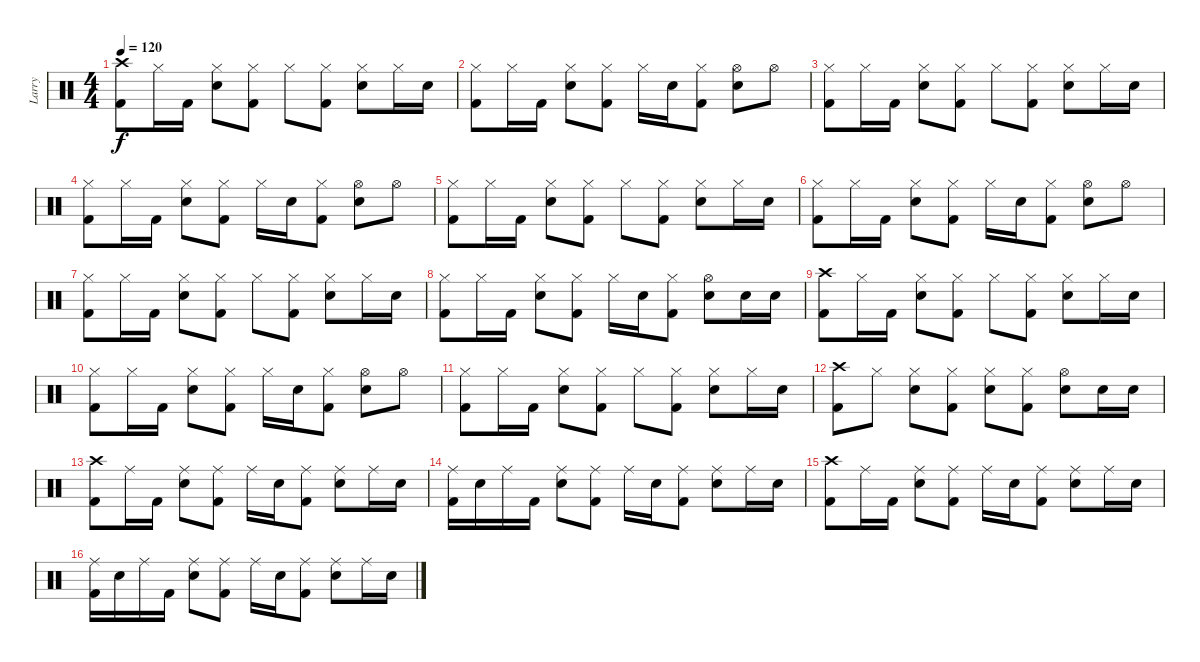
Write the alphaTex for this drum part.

\track ("Larry" "Larry") {instrument percussion}
\staff {score}
\articulation defaults
\ts (4 4)
\tempo 120
\clef neutral
\ks c
("Crash high (hit)" "Kick (hit) 2").8{dy f} "Hi-Hat (closed)".16 "Kick (hit) 2".16 ("Hi-Hat (closed)" "Snare (hit) 2").8 ("Hi-Hat (closed)" "Kick (hit) 2").8 "Hi-Hat (closed)".8 ("Hi-Hat (closed)" "Kick (hit) 2").8 ("Hi-Hat (closed)" "Snare (hit) 2").8 "Hi-Hat (closed)".16 "Snare (hit) 2".16 |
("Hi-Hat (closed)" "Kick (hit) 2").8 "Hi-Hat (closed)".16 "Kick (hit) 2".16 ("Hi-Hat (closed)" "Snare (hit) 2").8 ("Hi-Hat (closed)" "Kick (hit) 2").8 "Hi-Hat (closed)".16 "Snare (hit) 2".16 ("Hi-Hat (closed)" "Kick (hit) 2").8 ("Hi-Hat (open)" "Snare (hit) 2").8 "Hi-Hat (open)".8 |
("Hi-Hat (closed)" "Kick (hit) 2").8 "Hi-Hat (closed)".16 "Kick (hit) 2".16 ("Hi-Hat (closed)" "Snare (hit) 2").8 ("Hi-Hat (closed)" "Kick (hit) 2").8 "Hi-Hat (closed)".8 ("Hi-Hat (closed)" "Kick (hit) 2").8 ("Hi-Hat (closed)" "Snare (hit) 2").8 "Hi-Hat (closed)".16 "Snare (hit) 2".16 |
("Hi-Hat (closed)" "Kick (hit) 2").8 "Hi-Hat (closed)".16 "Kick (hit) 2".16 ("Hi-Hat (closed)" "Snare (hit) 2").8 ("Hi-Hat (closed)" "Kick (hit) 2").8 "Hi-Hat (closed)".16 "Snare (hit) 2".16 ("Hi-Hat (closed)" "Kick (hit) 2").8 ("Hi-Hat (open)" "Snare (hit) 2").8 "Hi-Hat (open)".8 |
("Hi-Hat (closed)" "Kick (hit) 2").8 "Hi-Hat (closed)".16 "Kick (hit) 2".16 ("Hi-Hat (closed)" "Snare (hit) 2").8 ("Hi-Hat (closed)" "Kick (hit) 2").8 "Hi-Hat (closed)".8 ("Hi-Hat (closed)" "Kick (hit) 2").8 ("Hi-Hat (closed)" "Snare (hit) 2").8 "Hi-Hat (closed)".16 "Snare (hit) 2".16 |
("Hi-Hat (closed)" "Kick (hit) 2").8 "Hi-Hat (closed)".16 "Kick (hit) 2".16 ("Hi-Hat (closed)" "Snare (hit) 2").8 ("Hi-Hat (closed)" "Kick (hit) 2").8 "Hi-Hat (closed)".16 "Snare (hit) 2".16 ("Hi-Hat (closed)" "Kick (hit) 2").8 ("Hi-Hat (open)" "Snare (hit) 2").8 "Hi-Hat (open)".8 |
("Hi-Hat (closed)" "Kick (hit) 2").8 "Hi-Hat (closed)".16 "Kick (hit) 2".16 ("Hi-Hat (closed)" "Snare (hit) 2").8 ("Hi-Hat (closed)" "Kick (hit) 2").8 "Hi-Hat (closed)".8 ("Hi-Hat (closed)" "Kick (hit) 2").8 ("Hi-Hat (closed)" "Snare (hit) 2").8 "Hi-Hat (closed)".16 "Snare (hit) 2".16 |
("Hi-Hat (closed)" "Kick (hit) 2").8 "Hi-Hat (closed)".16 "Kick (hit) 2".16 ("Hi-Hat (closed)" "Snare (hit) 2").8 ("Hi-Hat (closed)" "Kick (hit) 2").8 "Hi-Hat (closed)".16 "Snare (hit) 2".16 ("Hi-Hat (closed)" "Kick (hit) 2").8 ("Hi-Hat (open)" "Snare (hit) 2").8 "Snare (hit) 2".16 "Snare (hit) 2".16 |
("Crash high (hit)" "Kick (hit) 2").8 "Hi-Hat (closed)".16 "Kick (hit) 2".16 ("Hi-Hat (closed)" "Snare (hit) 2").8 ("Hi-Hat (closed)" "Kick (hit) 2").8 "Hi-Hat (closed)".8 ("Hi-Hat (closed)" "Kick (hit) 2").8 ("Hi-Hat (closed)" "Snare (hit) 2").8 "Hi-Hat (closed)".16 "Snare (hit) 2".16 |
("Hi-Hat (closed)" "Kick (hit) 2").8 "Hi-Hat (closed)".16 "Kick (hit) 2".16 ("Hi-Hat (closed)" "Snare (hit) 2").8 ("Hi-Hat (closed)" "Kick (hit) 2").8 "Hi-Hat (closed)".16 "Snare (hit) 2".16 ("Hi-Hat (closed)" "Kick (hit) 2").8 ("Hi-Hat (open)" "Snare (hit) 2").8 "Hi-Hat (open)".8 |
("Hi-Hat (closed)" "Kick (hit) 2").8 "Hi-Hat (closed)".16 "Kick (hit) 2".16 ("Hi-Hat (closed)" "Snare (hit) 2").8 ("Hi-Hat (closed)" "Kick (hit) 2").8 "Hi-Hat (closed)".8 ("Hi-Hat (closed)" "Kick (hit) 2").8 ("Hi-Hat (closed)" "Snare (hit) 2").8 "Hi-Hat (closed)".16 "Snare (hit) 2".16 |
("Crash high (hit)" "Kick (hit) 2").8 "Hi-Hat (closed)".8 ("Hi-Hat (closed)" "Snare (hit) 2").8 ("Hi-Hat (closed)" "Kick (hit) 2").8 ("Hi-Hat (closed)" "Snare (hit) 2").8 ("Hi-Hat (closed)" "Kick (hit) 2").8 ("Hi-Hat (open)" "Snare (hit) 2").8 "Snare (hit) 2".16 "Snare (hit) 2".16 |
("Crash high (hit)" "Kick (hit) 2").8 "Ride (middle)".16 "Kick (hit) 2".16 ("Ride (middle)" "Snare (hit) 2").8 ("Ride (middle)" "Kick (hit) 2").8 "Ride (middle)".16 "Snare (hit) 2".16 ("Ride (middle)" "Kick (hit) 2").8 ("Ride (middle)" "Snare (hit) 2").8 "Ride (middle)".16 "Snare (hit) 2".16 |
("Ride (middle)" "Kick (hit) 2").16 "Snare (hit) 2".16 "Ride (middle)".16 "Kick (hit) 2".16 ("Ride (middle)" "Snare (hit) 2").8 ("Ride (middle)" "Kick (hit) 2").8 "Ride (middle)".16 "Snare (hit) 2".16 ("Ride (middle)" "Kick (hit) 2").8 ("Ride (middle)" "Snare (hit) 2").8 "Ride (middle)".16 "Snare (hit) 2".16 |
("Crash high (hit)" "Kick (hit) 2").8 "Ride (middle)".16 "Kick (hit) 2".16 ("Ride (middle)" "Snare (hit) 2").8 ("Ride (middle)" "Kick (hit) 2").8 "Ride (middle)".16 "Snare (hit) 2".16 ("Ride (middle)" "Kick (hit) 2").8 ("Ride (middle)" "Snare (hit) 2").8 "Ride (middle)".16 "Snare (hit) 2".16 |
("Ride (middle)" "Kick (hit) 2").16 "Snare (hit) 2".16 "Ride (middle)".16 "Kick (hit) 2".16 ("Ride (middle)" "Snare (hit) 2").8 ("Ride (middle)" "Kick (hit) 2").8 "Ride (middle)".16 "Snare (hit) 2".16 ("Ride (middle)" "Kick (hit) 2").8 ("Ride (middle)" "Snare (hit) 2").8 "Ride (middle)".16 "Snare (hit) 2".16
